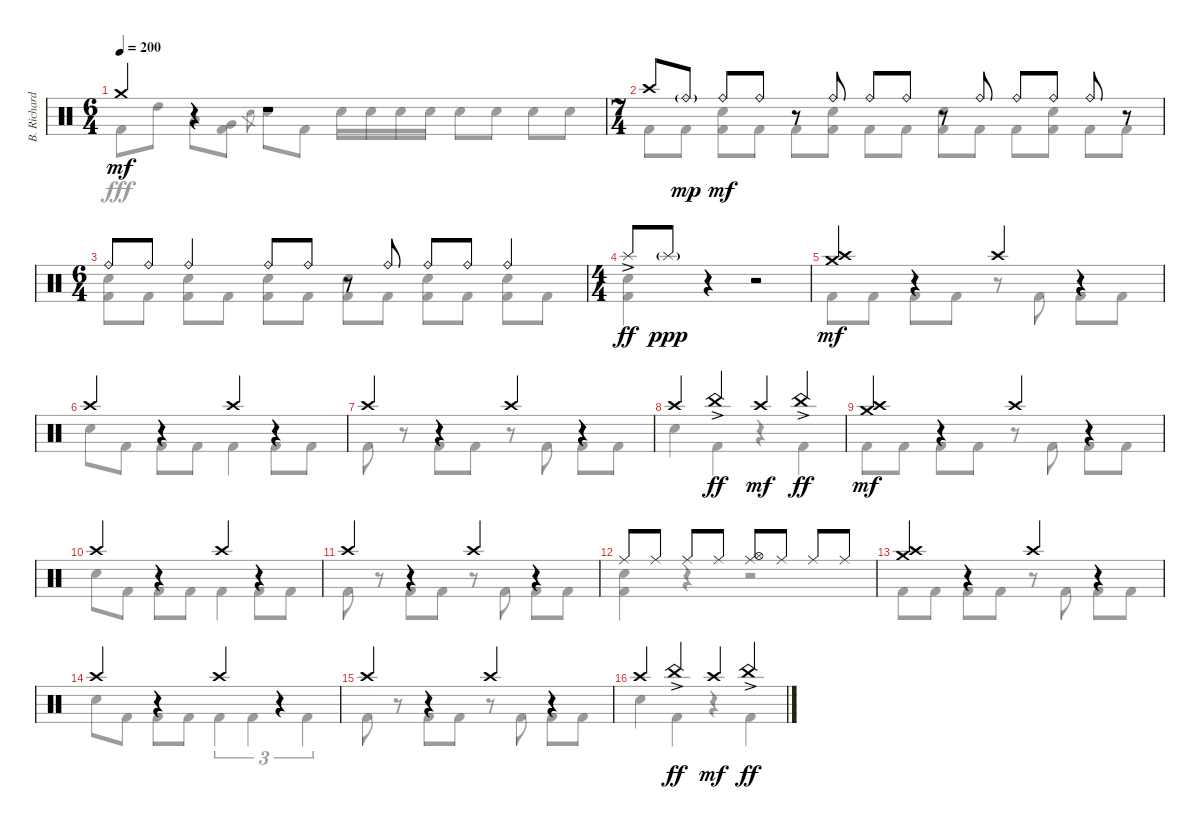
\track ("B. Richardson Drums" "B. Richard") {instrument percussion}
\staff {score}
\articulation defaults
\voice
\ts (6 4)
\tempo 200
\clef neutral
\ks c "Crash medium (hit)".4{dy mf}
r.4 r.1 |
\ts (7 4)
"Crash high (hit)".8 "Ride (bell)"{g}.8{dy mp} "Ride (bell)".8{dy mf} "Ride (bell)".8 r.8 "Ride (bell)".8 "Ride (bell)".8 "Ride (bell)".8 r.8 "Ride (bell)".8 "Ride (bell)".8 "Ride (bell)".8 "Ride (bell)".8 r.8 |
\ts (6 4)
"Ride (bell)".8 "Ride (bell)".8 "Ride (bell)".4 "Ride (bell)".8 "Ride (bell)".8 r.8 "Ride (bell)".8 "Ride (bell)".8 "Ride (bell)".8 "Ride (bell)".4 |
\ts (4 4)
"Splash (hit)"{ac}.8{dy ff} "Splash (hit)"{g}.8{dy ppp} r.4 r.2 |
("Crash high (hit)" "Crash medium (hit)").4{dy mf} r.4 "Crash high (hit)".4 r.4 |
"Crash high (hit)".4 r.4 "Crash high (hit)".4 r.4 |
"Crash high (hit)".4 r.4 "Crash high (hit)".4 r.4 |
"Crash high (hit)".4 "China (hit)"{ac}.4{dy ff} "Crash high (hit)".4{dy mf} "China (hit)"{ac}.4{dy ff} |
("Crash high (hit)" "Crash medium (hit)").4{dy mf} r.4 "Crash high (hit)".4 r.4 |
"Crash high (hit)".4 r.4 "Crash high (hit)".4 r.4 |
"Crash high (hit)".4 r.4 "Crash high (hit)".4 r.4 |
"Ride (middle)".8 "Ride (middle)".8 "Ride (middle)".8 "Ride (middle)".8 ("Ride (middle)" "Hi-Hat (open)").8 "Ride (middle)".8 "Ride (middle)".8 "Ride (middle)".8 |
("Crash high (hit)" "Crash medium (hit)").4 r.4 "Crash high (hit)".4 r.4 |
"Crash high (hit)".4 r.4 "Crash high (hit)".4 r.4 |
"Crash high (hit)".4 r.4 "Crash high (hit)".4 r.4 |
"Crash high (hit)".4 "China (hit)"{ac}.4{dy ff} "Crash high (hit)".4{dy mf} "China (hit)"{ac}.4{dy ff}
\voice
\clef neutral
\ottava regular
\simile none
\ks c "Kick (hit) 2".8{dy fff} "High Tom (hit)".8 "Low Tom (hit)".8
("Very Low Tom (hit)" "Kick (hit) 2").8 "Electric Snare (hit)".8{gr} "Electric Snare (hit)".8 "Kick (hit) 2".8 "Electric Snare (hit)".16 "Electric Snare (hit)".16 "Electric Snare (hit)".16 "Electric Snare (hit)".16 "Electric Snare (hit)".8 "Electric Snare (hit)".8 "Electric Snare (hit)".8 "Electric Snare (hit)".8 |
"Kick (hit) 2".8 "Kick (hit) 2".8 ("Electric Snare (hit)" "Kick (hit) 2").8 "Kick (hit) 2".8 "Kick (hit) 2".8 ("Electric Snare (hit)" "Kick (hit) 2").8 "Kick (hit) 2".8 "Kick (hit) 2".8 ("Electric Snare (hit)" "Kick (hit) 2").8 "Kick (hit) 2".8 "Kick (hit) 2".8 ("Electric Snare (hit)" "Kick (hit) 2").8 "Kick (hit) 2".8 "Kick (hit) 2".8 |
("Electric Snare (hit)" "Kick (hit) 2").8 "Kick (hit) 2".8 ("Electric Snare (hit)" "Kick (hit) 2").8 "Kick (hit) 2".8 ("Electric Snare (hit)" "Kick (hit) 2").8 "Kick (hit) 2".8 ("Electric Snare (hit)" "Kick (hit) 2").8 "Kick (hit) 2".8 ("Electric Snare (hit)" "Kick (hit) 2").8 "Kick (hit) 2".8 ("Electric Snare (hit)" "Kick (hit) 2").8 "Kick (hit) 2".8 |
("Electric Snare (hit)" "Kick (hit) 2").4 r.4 r.2 |
"Kick (hit) 2".8 "Kick (hit) 2".8 "Kick (hit) 2".8 "Kick (hit) 2".8 r.8 "Kick (hit) 2".8 "Kick (hit) 2".8 "Kick (hit) 2".8 |
"Electric Snare (hit)".8 "Kick (hit) 2".8 "Kick (hit) 2".8 "Kick (hit) 2".8 "Kick (hit) 2".4 "Kick (hit) 2".8 "Kick (hit) 2".8 |
"Kick (hit) 2".8 r.8 "Kick (hit) 2".8 "Kick (hit) 2".8 r.8 "Kick (hit) 2".8 "Kick (hit) 2".8 "Kick (hit) 2".8 |
"Electric Snare (hit)".4 "Kick (hit) 2".4 r.4 "Kick (hit) 2".4 |
"Kick (hit) 2".8 "Kick (hit) 2".8 "Kick (hit) 2".8 "Kick (hit) 2".8 r.8 "Kick (hit) 2".8 "Kick (hit) 2".8 "Kick (hit) 2".8 |
"Electric Snare (hit)".8 "Kick (hit) 2".8 "Kick (hit) 2".8 "Kick (hit) 2".8 "Kick (hit) 2".4 "Kick (hit) 2".8 "Kick (hit) 2".8 |
"Kick (hit) 2".8 r.8 "Kick (hit) 2".8 "Kick (hit) 2".8 r.8 "Kick (hit) 2".8 "Kick (hit) 2".8 "Kick (hit) 2".8 |
("Electric Snare (hit)" "Kick (hit) 2").4 r.4 r.2 |
"Kick (hit) 2".8 "Kick (hit) 2".8 "Kick (hit) 2".8 "Kick (hit) 2".8 r.8 "Kick (hit) 2".8 "Kick (hit) 2".8 "Kick (hit) 2".8 |
"Electric Snare (hit)".8 "Kick (hit) 2".8 "Kick (hit) 2".8 "Kick (hit) 2".8 "Kick (hit) 2".4{tu (3 2)} "Kick (hit) 2".4{tu (3 2)} "Kick (hit) 2".4{tu (3 2)} |
"Kick (hit) 2".8 r.8 "Kick (hit) 2".8 "Kick (hit) 2".8 r.8 "Kick (hit) 2".8 "Kick (hit) 2".8 "Kick (hit) 2".8 |
"Electric Snare (hit)".4 "Kick (hit) 2".4 r.4 "Kick (hit) 2".4
